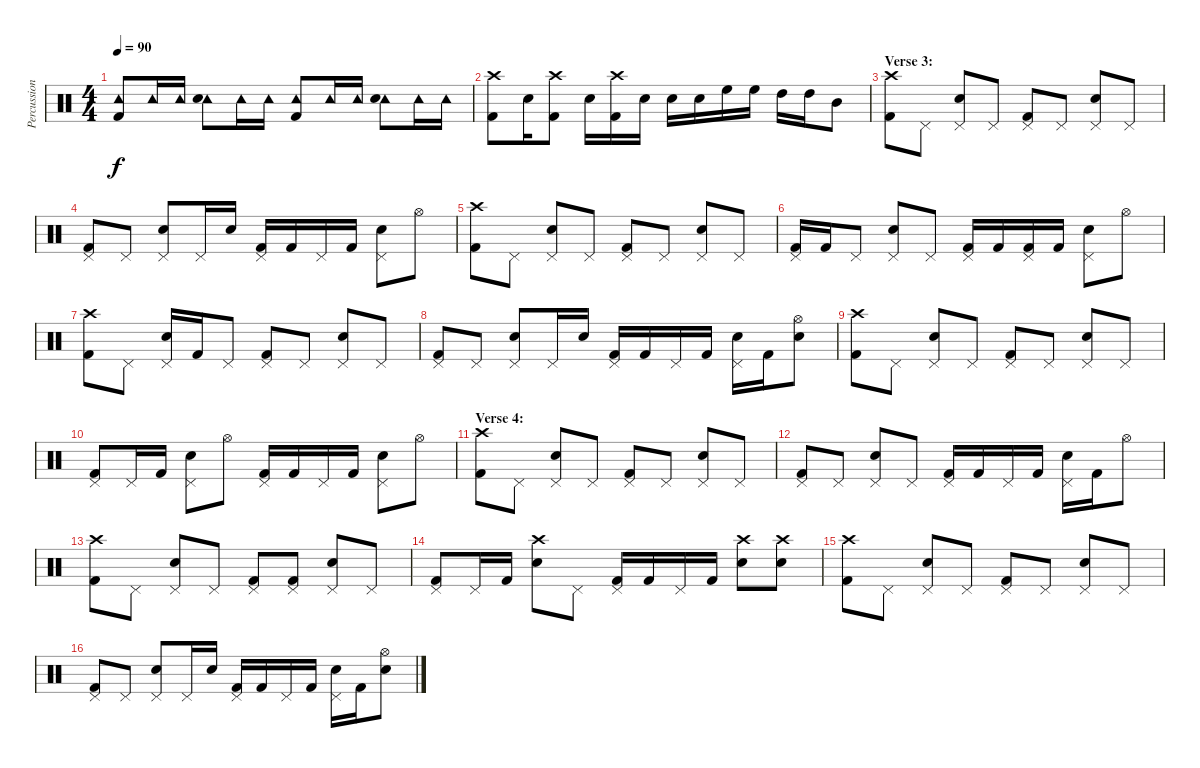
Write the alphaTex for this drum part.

\track ("Percussion" "Percussion") {instrument percussion}
\staff {score}
\articulation defaults
\ts (4 4)
\tempo 90
\clef neutral
\ks c
("Tambourine (hit)" "Kick (hit) 2").8{dy f} "Tambourine (hit)".16 "Tambourine (hit)".16 ("Tambourine (hit)" "Electric Snare (hit)").8 "Tambourine (hit)".16 "Tambourine (hit)".16 ("Tambourine (hit)" "Kick (hit) 2").8 "Tambourine (hit)".16 "Tambourine (hit)".16 ("Tambourine (hit)" "Electric Snare (hit)").8 "Tambourine (hit)".16 "Tambourine (hit)".16 |
("Crash high (hit)" "Kick (hit) 2").8 "Electric Snare (hit)".16 ("Crash high (hit)" "Kick (hit) 2").8 "Electric Snare (hit)".16 ("Crash high (hit)" "Kick (hit) 2").16 "Electric Snare (hit)".16 "Electric Snare (hit)".16 "Electric Snare (hit)".16 "High Floor Tom (hit)".16 "High Floor Tom (hit)".16 "High Tom (hit)".16 "High Tom (hit)".16 "Mid Tom (hit)".8 |
\section ("" "Verse 3:")
("Crash high (hit)" "Kick (hit) 2").8 "Pedal Hi-Hat (hit)".8 ("Pedal Hi-Hat (hit)" "Electric Snare (hit)").8 "Pedal Hi-Hat (hit)".8 ("Pedal Hi-Hat (hit)" "Kick (hit) 2").8 "Pedal Hi-Hat (hit)".8 ("Pedal Hi-Hat (hit)" "Electric Snare (hit)").8 "Pedal Hi-Hat (hit)".8 |
("Pedal Hi-Hat (hit)" "Kick (hit) 2").8 "Pedal Hi-Hat (hit)".8 ("Pedal Hi-Hat (hit)" "Electric Snare (hit)").8 "Pedal Hi-Hat (hit)".16 "Electric Snare (hit)".16 ("Pedal Hi-Hat (hit)" "Kick (hit) 2").16 "Kick (hit) 2".16 "Pedal Hi-Hat (hit)".16 "Kick (hit) 2".16 ("Pedal Hi-Hat (hit)" "Electric Snare (hit)").8 "Hi-Hat (open)".8 |
("Crash high (hit)" "Kick (hit) 2").8 "Pedal Hi-Hat (hit)".8 ("Pedal Hi-Hat (hit)" "Electric Snare (hit)").8 "Pedal Hi-Hat (hit)".8 ("Pedal Hi-Hat (hit)" "Kick (hit) 2").8 "Pedal Hi-Hat (hit)".8 ("Pedal Hi-Hat (hit)" "Electric Snare (hit)").8 "Pedal Hi-Hat (hit)".8 |
("Pedal Hi-Hat (hit)" "Kick (hit) 2").16 "Kick (hit) 2".16 "Pedal Hi-Hat (hit)".8 ("Pedal Hi-Hat (hit)" "Electric Snare (hit)").8 "Pedal Hi-Hat (hit)".8 ("Pedal Hi-Hat (hit)" "Kick (hit) 2").16 "Kick (hit) 2".16 ("Pedal Hi-Hat (hit)" "Kick (hit) 2").16 "Kick (hit) 2".16 ("Pedal Hi-Hat (hit)" "Electric Snare (hit)").8 "Hi-Hat (open)".8 |
("Crash high (hit)" "Kick (hit) 2").8 "Pedal Hi-Hat (hit)".8 ("Pedal Hi-Hat (hit)" "Electric Snare (hit)").16 "Kick (hit) 2".16 "Pedal Hi-Hat (hit)".8 ("Pedal Hi-Hat (hit)" "Kick (hit) 2").8 "Pedal Hi-Hat (hit)".8 ("Pedal Hi-Hat (hit)" "Electric Snare (hit)").8 "Pedal Hi-Hat (hit)".8 |
("Pedal Hi-Hat (hit)" "Kick (hit) 2").8 "Pedal Hi-Hat (hit)".8 ("Pedal Hi-Hat (hit)" "Electric Snare (hit)").8 "Pedal Hi-Hat (hit)".16 "Electric Snare (hit)".16 ("Pedal Hi-Hat (hit)" "Kick (hit) 2").16 "Kick (hit) 2".16 "Pedal Hi-Hat (hit)".16 "Kick (hit) 2".16 ("Pedal Hi-Hat (hit)" "Electric Snare (hit)").16 "Kick (hit) 2".16 ("Hi-Hat (open)" "Electric Snare (hit)").8 |
("Crash high (hit)" "Kick (hit) 2").8 "Pedal Hi-Hat (hit)".8 ("Pedal Hi-Hat (hit)" "Electric Snare (hit)").8 "Pedal Hi-Hat (hit)".8 ("Pedal Hi-Hat (hit)" "Kick (hit) 2").8 "Pedal Hi-Hat (hit)".8 ("Pedal Hi-Hat (hit)" "Electric Snare (hit)").8 "Pedal Hi-Hat (hit)".8 |
("Pedal Hi-Hat (hit)" "Kick (hit) 2").8 "Pedal Hi-Hat (hit)".16 "Kick (hit) 2".16 ("Pedal Hi-Hat (hit)" "Electric Snare (hit)").8 "Hi-Hat (open)".8 ("Pedal Hi-Hat (hit)" "Kick (hit) 2").16 "Kick (hit) 2".16 "Pedal Hi-Hat (hit)".16 "Kick (hit) 2".16 ("Pedal Hi-Hat (hit)" "Electric Snare (hit)").8 "Hi-Hat (open)".8 |
\section ("" "Verse 4:")
("Crash high (hit)" "Kick (hit) 2").8 "Pedal Hi-Hat (hit)".8 ("Pedal Hi-Hat (hit)" "Electric Snare (hit)").8 "Pedal Hi-Hat (hit)".8 ("Pedal Hi-Hat (hit)" "Kick (hit) 2").8 "Pedal Hi-Hat (hit)".8 ("Pedal Hi-Hat (hit)" "Electric Snare (hit)").8 "Pedal Hi-Hat (hit)".8 |
("Pedal Hi-Hat (hit)" "Kick (hit) 2").8 "Pedal Hi-Hat (hit)".8 ("Pedal Hi-Hat (hit)" "Electric Snare (hit)").8 "Pedal Hi-Hat (hit)".8 ("Pedal Hi-Hat (hit)" "Kick (hit) 2").16 "Kick (hit) 2".16 "Pedal Hi-Hat (hit)".16 "Kick (hit) 2".16 ("Pedal Hi-Hat (hit)" "Electric Snare (hit)").16 "Kick (hit) 2".16 "Hi-Hat (open)".8 |
("Crash high (hit)" "Kick (hit) 2").8 "Pedal Hi-Hat (hit)".8 ("Pedal Hi-Hat (hit)" "Electric Snare (hit)").8 "Pedal Hi-Hat (hit)".8 ("Pedal Hi-Hat (hit)" "Kick (hit) 2").8 ("Pedal Hi-Hat (hit)" "Kick (hit) 2").8 ("Pedal Hi-Hat (hit)" "Electric Snare (hit)").8 "Pedal Hi-Hat (hit)".8 |
("Pedal Hi-Hat (hit)" "Kick (hit) 2").8 "Pedal Hi-Hat (hit)".16 "Kick (hit) 2".16 ("Crash high (hit)" "Electric Snare (hit)").8 "Pedal Hi-Hat (hit)".8 ("Pedal Hi-Hat (hit)" "Kick (hit) 2").16 "Kick (hit) 2".16 "Pedal Hi-Hat (hit)".16 "Kick (hit) 2".16 ("Crash high (hit)" "Electric Snare (hit)").8 ("Crash high (hit)" "Electric Snare (hit)").8 |
("Crash high (hit)" "Kick (hit) 2").8 "Pedal Hi-Hat (hit)".8 ("Pedal Hi-Hat (hit)" "Electric Snare (hit)").8 "Pedal Hi-Hat (hit)".8 ("Pedal Hi-Hat (hit)" "Kick (hit) 2").8 "Pedal Hi-Hat (hit)".8 ("Pedal Hi-Hat (hit)" "Electric Snare (hit)").8 "Pedal Hi-Hat (hit)".8 |
("Pedal Hi-Hat (hit)" "Kick (hit) 2").8 "Pedal Hi-Hat (hit)".8 ("Pedal Hi-Hat (hit)" "Electric Snare (hit)").8 "Pedal Hi-Hat (hit)".16 "Electric Snare (hit)".16 ("Pedal Hi-Hat (hit)" "Kick (hit) 2").16 "Kick (hit) 2".16 "Pedal Hi-Hat (hit)".16 "Kick (hit) 2".16 ("Pedal Hi-Hat (hit)" "Electric Snare (hit)").16 "Kick (hit) 2".16 ("Hi-Hat (open)" "Electric Snare (hit)").8
